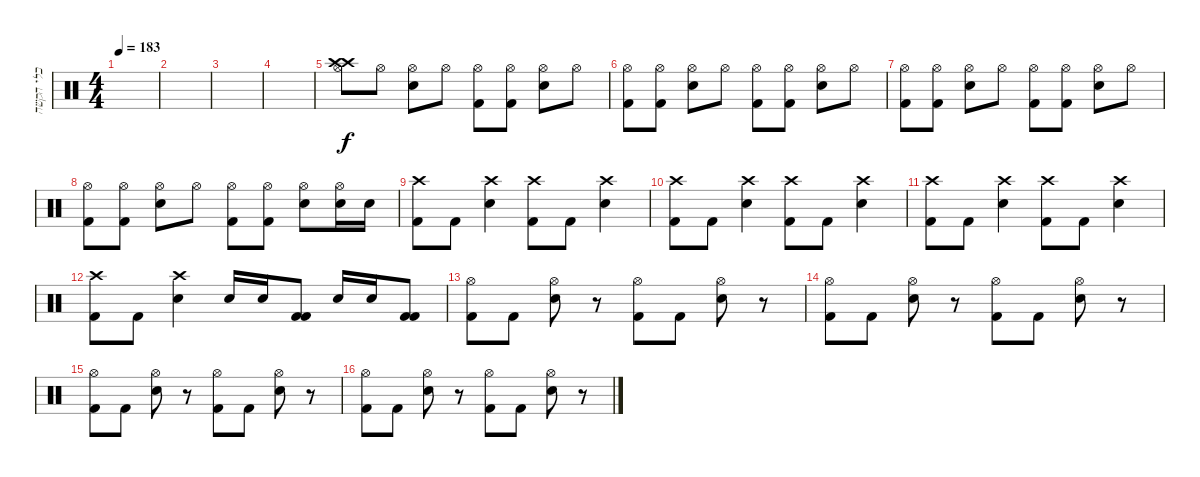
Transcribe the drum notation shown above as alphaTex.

\track ("כלי הקשה" "כלי הקשה") {instrument percussion}
\staff {score}
\articulation defaults
\ts (4 4)
\tempo 183
\clef neutral
\ks c
|
|
|
|
("Crash high (hit)" "Crash high (hit)" "Hi-Hat (open)").8 "Hi-Hat (open)".8 ("Hi-Hat (open)" "Snare (hit) 2").8 "Hi-Hat (open)".8 ("Hi-Hat (open)" "Kick (hit) 2").8 ("Hi-Hat (open)" "Kick (hit) 2").8 ("Hi-Hat (open)" "Snare (hit) 2").8 "Hi-Hat (open)".8 |
("Hi-Hat (open)" "Kick (hit) 2").8 ("Hi-Hat (open)" "Kick (hit) 2").8 ("Hi-Hat (open)" "Snare (hit) 2").8 "Hi-Hat (open)".8 ("Hi-Hat (open)" "Kick (hit) 2").8 ("Hi-Hat (open)" "Kick (hit) 2").8 ("Hi-Hat (open)" "Snare (hit) 2").8 "Hi-Hat (open)".8 |
("Hi-Hat (open)" "Kick (hit) 2").8 ("Hi-Hat (open)" "Kick (hit) 2").8 ("Hi-Hat (open)" "Snare (hit) 2").8 "Hi-Hat (open)".8 ("Hi-Hat (open)" "Kick (hit) 2").8 ("Hi-Hat (open)" "Kick (hit) 2").8 ("Hi-Hat (open)" "Snare (hit) 2").8 "Hi-Hat (open)".8 |
("Hi-Hat (open)" "Kick (hit) 2").8 ("Hi-Hat (open)" "Kick (hit) 2").8 ("Hi-Hat (open)" "Snare (hit) 2").8 "Hi-Hat (open)".8 ("Hi-Hat (open)" "Kick (hit) 2").8 ("Hi-Hat (open)" "Kick (hit) 2").8 ("Hi-Hat (open)" "Snare (hit) 2").8 ("Hi-Hat (open)" "Snare (hit) 2").16 "Snare (hit) 2".16 |
("Crash high (hit)" "Kick (hit) 2").8 "Kick (hit) 2".8 ("Crash high (hit)" "Snare (hit) 2").4 ("Crash high (hit)" "Kick (hit) 2").8 "Kick (hit) 2".8 ("Crash high (hit)" "Snare (hit) 2").4 |
("Crash high (hit)" "Kick (hit) 2").8 "Kick (hit) 2".8 ("Crash high (hit)" "Snare (hit) 2").4 ("Crash high (hit)" "Kick (hit) 2").8 "Kick (hit) 2".8 ("Crash high (hit)" "Snare (hit) 2").4 |
("Crash high (hit)" "Kick (hit) 2").8 "Kick (hit) 2".8 ("Crash high (hit)" "Snare (hit) 2").4 ("Crash high (hit)" "Kick (hit) 2").8 "Kick (hit) 2".8 ("Crash high (hit)" "Snare (hit) 2").4 |
("Crash high (hit)" "Kick (hit) 2").8 "Kick (hit) 2".8 ("Crash high (hit)" "Snare (hit) 2").4 "Snare (hit) 2".16 "Snare (hit) 2".16 ("Kick (hit) 2" "Kick (hit) 2").8 "Snare (hit) 2".16 "Snare (hit) 2".16 ("Kick (hit) 2" "Kick (hit) 2").8 |
("Hi-Hat (open)" "Kick (hit) 2").8 "Kick (hit) 2".8 ("Hi-Hat (open)" "Snare (hit) 2").8 r.8 ("Hi-Hat (open)" "Kick (hit) 2").8 "Kick (hit) 2".8 ("Hi-Hat (open)" "Snare (hit) 2").8 r.8 |
("Hi-Hat (open)" "Kick (hit) 2").8 "Kick (hit) 2".8 ("Hi-Hat (open)" "Snare (hit) 2").8 r.8 ("Hi-Hat (open)" "Kick (hit) 2").8 "Kick (hit) 2".8 ("Hi-Hat (open)" "Snare (hit) 2").8 r.8 |
("Hi-Hat (open)" "Kick (hit) 2").8 "Kick (hit) 2".8 ("Hi-Hat (open)" "Snare (hit) 2").8 r.8 ("Hi-Hat (open)" "Kick (hit) 2").8 "Kick (hit) 2".8 ("Hi-Hat (open)" "Snare (hit) 2").8 r.8 |
("Hi-Hat (open)" "Kick (hit) 2").8 "Kick (hit) 2".8 ("Hi-Hat (open)" "Snare (hit) 2").8 r.8 ("Hi-Hat (open)" "Kick (hit) 2").8 "Kick (hit) 2".8 ("Hi-Hat (open)" "Snare (hit) 2").8 r.8
